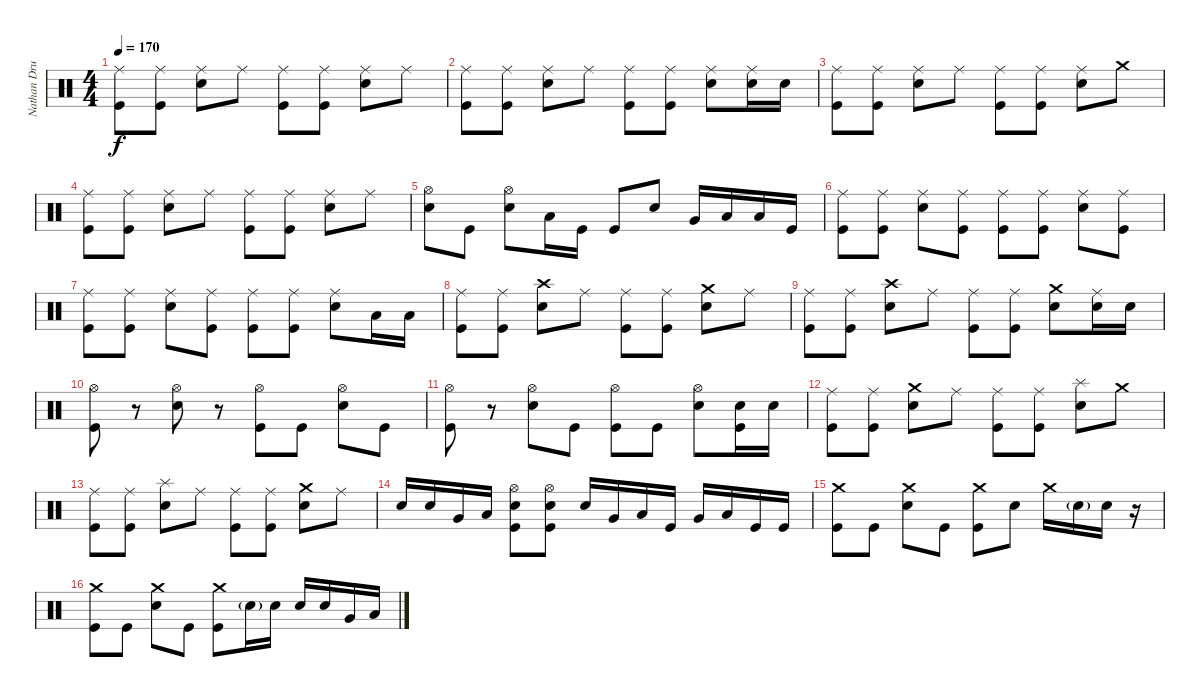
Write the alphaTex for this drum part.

\track ("Nathan Drum Programming" "Nathan Dru") {instrument percussion}
\staff {score}
\articulation defaults
\ts (4 4)
\tempo 170
\clef neutral
\ks c
("Ride (middle)" "Kick (hit)").8{dy f} ("Ride (middle)" "Kick (hit)").8 ("Ride (middle)" "Snare (hit) 2").8 "Ride (middle)".8 ("Ride (middle)" "Kick (hit)").8 ("Ride (middle)" "Kick (hit)").8 ("Ride (middle)" "Snare (hit) 2").8 "Ride (middle)".8 |
("Ride (middle)" "Kick (hit)").8 ("Ride (middle)" "Kick (hit)").8 ("Ride (middle)" "Snare (hit) 2").8 "Ride (middle)".8 ("Ride (middle)" "Kick (hit)").8 ("Ride (middle)" "Kick (hit)").8 ("Ride (middle)" "Snare (hit) 2").8 ("Ride (middle)" "Snare (hit) 2").16 "Snare (hit) 2".16 |
("Ride (middle)" "Kick (hit)").8 ("Ride (middle)" "Kick (hit)").8 ("Ride (middle)" "Snare (hit) 2").8 "Ride (middle)".8 ("Ride (middle)" "Kick (hit)").8 ("Ride (middle)" "Kick (hit)").8 ("Ride (middle)" "Snare (hit) 2").8 "Crash medium (hit)".8 |
("Ride (middle)" "Kick (hit)").8 ("Ride (middle)" "Kick (hit)").8 ("Ride (middle)" "Snare (hit) 2").8 "Ride (middle)".8 ("Ride (middle)" "Kick (hit)").8 ("Ride (middle)" "Kick (hit)").8 ("Ride (middle)" "Snare (hit) 2").8 "Ride (middle)".8 |
("Snare (hit) 2" "Hi-Hat (open)").8 "Kick (hit)".8 ("Snare (hit) 2" "Hi-Hat (open)").8 "Low Floor Tom (hit)".16 "Kick (hit)".16 "Kick (hit)".8 "Snare (hit) 2".8 "Very Low Tom (hit)".16 "Low Floor Tom (hit)".16 "Low Floor Tom (hit)".16 "Kick (hit)".16 |
("Ride (middle)" "Kick (hit)").8 ("Ride (middle)" "Kick (hit)").8 ("Ride (middle)" "Snare (hit) 2").8 ("Ride (middle)" "Kick (hit)").8 ("Ride (middle)" "Kick (hit)").8 ("Ride (middle)" "Kick (hit)").8 ("Ride (middle)" "Snare (hit) 2").8 ("Ride (middle)" "Kick (hit)").8 |
("Ride (middle)" "Kick (hit)").8 ("Ride (middle)" "Kick (hit)").8 ("Ride (middle)" "Snare (hit) 2").8 ("Ride (middle)" "Kick (hit)").8 ("Ride (middle)" "Kick (hit)").8 ("Ride (middle)" "Kick (hit)").8 ("Ride (middle)" "Snare (hit) 2").8 "Low Floor Tom (hit)".16 "Low Floor Tom (hit)".16 |
("Ride (middle)" "Kick (hit)").8 ("Ride (middle)" "Kick (hit)").8 ("Snare (hit) 2" "Crash high (hit)").8 "Ride (middle)".8 ("Ride (middle)" "Kick (hit)").8 ("Ride (middle)" "Kick (hit)").8 ("Snare (hit) 2" "Crash medium (hit)").8 "Ride (middle)".8 |
("Ride (middle)" "Kick (hit)").8 ("Ride (middle)" "Kick (hit)").8 ("Snare (hit) 2" "Crash high (hit)").8 "Ride (middle)".8 ("Ride (middle)" "Kick (hit)").8 ("Ride (middle)" "Kick (hit)").8 ("Snare (hit) 2" "Crash medium (hit)").8 ("Ride (middle)" "Snare (hit) 2").16 "Snare (hit) 2".16 |
("Kick (hit)" "Hi-Hat (open)").8 r.8 ("Snare (hit) 2" "Hi-Hat (open)").8 r.8 ("Hi-Hat (open)" "Kick (hit)").8 "Kick (hit)".8 ("Snare (hit) 2" "Hi-Hat (open)").8 "Kick (hit)".8 |
("Kick (hit)" "Hi-Hat (open)").8 r.8 ("Snare (hit) 2" "Hi-Hat (open)").8 "Kick (hit)".8 ("Kick (hit)" "Hi-Hat (open)").8 "Kick (hit)".8 ("Snare (hit) 2" "Hi-Hat (open)").8 ("Snare (hit) 2" "Kick (hit)").16 "Snare (hit) 2".16 |
("Ride (middle)" "Kick (hit)").8 ("Ride (middle)" "Kick (hit)").8 ("Snare (hit) 2" "Crash medium (hit)").8 "Ride (middle)".8 ("Ride (middle)" "Kick (hit)").8 ("Ride (middle)" "Kick (hit)").8 ("Snare (hit) 2" "Splash (hit)").8 "Crash medium (hit)".8 |
("Ride (middle)" "Kick (hit)").8 ("Ride (middle)" "Kick (hit)").8 ("Snare (hit) 2" "Splash (hit)").8 "Ride (middle)".8 ("Ride (middle)" "Kick (hit)").8 ("Ride (middle)" "Kick (hit)").8 ("Snare (hit) 2" "Crash medium (hit)").8 "Ride (middle)".8 |
"Snare (hit) 2".16 "Snare (hit) 2".16 "Very Low Tom (hit)".16 "Low Floor Tom (hit)".16 ("Hi-Hat (open)" "Snare (hit) 2" "Kick (hit)").8 ("Hi-Hat (open)" "Snare (hit) 2" "Kick (hit)").8 "Snare (hit) 2".16 "Very Low Tom (hit)".16 "Low Floor Tom (hit)".16 "Kick (hit)".16 "Very Low Tom (hit)".16 "Low Floor Tom (hit)".16 "Kick (hit)".16 "Kick (hit)".16 |
("Kick (hit)" "Crash medium (hit)").8 "Kick (hit)".8 ("Crash medium (hit)" "Snare (hit) 2").8 "Kick (hit)".8 ("Kick (hit)" "Crash medium (hit)").8 "Snare (hit) 2".8 "Crash medium (hit)".16 "Snare (hit) 2"{g}.16 "Snare (hit) 2".16 r.16 |
("Kick (hit)" "Crash medium (hit)").8 "Kick (hit)".8 ("Crash medium (hit)" "Snare (hit) 2").8 "Kick (hit)".8 ("Kick (hit)" "Crash medium (hit)").8 "Snare (hit) 2"{g}.16 "Snare (hit) 2".16 "Snare (hit) 2".16 "Snare (hit) 2".16 "Very Low Tom (hit)".16 "Low Floor Tom (hit)".16
